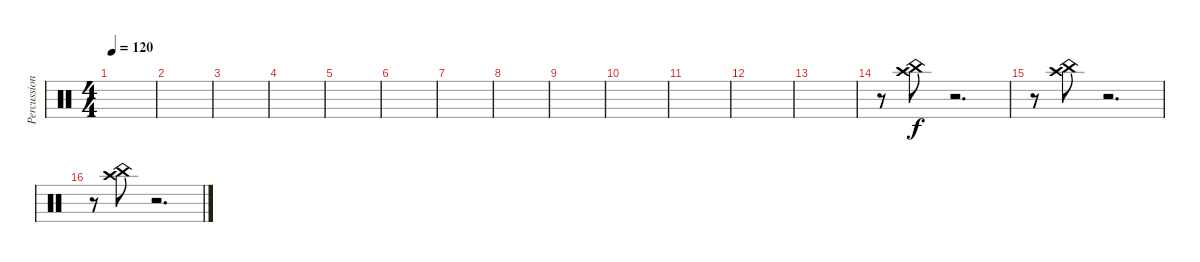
\track ("Percussion" "Percussion") {instrument percussion}
\staff {score}
\articulation defaults
\ts (4 4)
\tempo 120
\clef neutral
\ks c
|
|
|
|
|
|
|
|
|
|
|
|
|
r.8 ("China (hit)" "Crash high (hit)").8 r.2{d} |
r.8 ("China (hit)" "Crash high (hit)").8 r.2{d} |
r.8 ("China (hit)" "Crash high (hit)").8 r.2{d}
